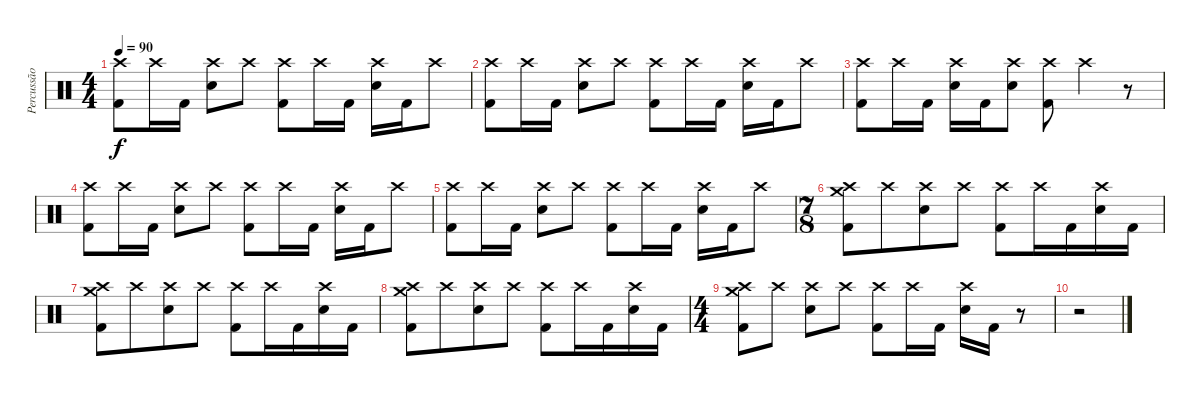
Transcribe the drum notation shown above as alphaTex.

\track ("Percussão" "Percussão") {instrument percussion}
\staff {score}
\articulation defaults
\ts (4 4)
\tempo 90
\clef neutral
\ks c
("Crash high (hit)" "Kick (hit) 2").8{dy f} "Crash high (hit)".16 "Kick (hit) 2".16 ("Crash high (hit)" "Electric Snare (hit)").8 "Crash high (hit)".8 ("Crash high (hit)" "Kick (hit) 2").8 "Crash high (hit)".16 "Kick (hit) 2".16 ("Crash high (hit)" "Electric Snare (hit)").16 "Kick (hit) 2".16 "Crash high (hit)".8 |
("Crash high (hit)" "Kick (hit) 2").8 "Crash high (hit)".16 "Kick (hit) 2".16 ("Crash high (hit)" "Electric Snare (hit)").8 "Crash high (hit)".8 ("Crash high (hit)" "Kick (hit) 2").8 "Crash high (hit)".16 "Kick (hit) 2".16 ("Crash high (hit)" "Electric Snare (hit)").16 "Kick (hit) 2".16 "Crash high (hit)".8 |
("Crash high (hit)" "Kick (hit) 2").8 "Crash high (hit)".16 "Kick (hit) 2".16 ("Crash high (hit)" "Electric Snare (hit)").16 "Kick (hit) 2".16 ("Crash high (hit)" "Electric Snare (hit)").8 ("Crash high (hit)" "Kick (hit) 2").8 "Crash high (hit)".4 r.8 |
("Crash high (hit)" "Kick (hit) 2").8 "Crash high (hit)".16 "Kick (hit) 2".16 ("Crash high (hit)" "Electric Snare (hit)").8 "Crash high (hit)".8 ("Crash high (hit)" "Kick (hit) 2").8 "Crash high (hit)".16 "Kick (hit) 2".16 ("Crash high (hit)" "Electric Snare (hit)").16 "Kick (hit) 2".16 "Crash high (hit)".8 |
("Crash high (hit)" "Kick (hit) 2").8 "Crash high (hit)".16 "Kick (hit) 2".16 ("Crash high (hit)" "Electric Snare (hit)").8 "Crash high (hit)".8 ("Crash high (hit)" "Kick (hit) 2").8 "Crash high (hit)".16 "Kick (hit) 2".16 ("Crash high (hit)" "Electric Snare (hit)").16 "Kick (hit) 2".16 "Crash high (hit)".8 |
\ts (7 8)
("Crash medium (hit)" "Crash high (hit)" "Kick (hit) 2").8 "Crash high (hit)".8 ("Crash high (hit)" "Electric Snare (hit)").8 "Crash high (hit)".8 ("Crash high (hit)" "Kick (hit) 2").8 "Crash high (hit)".16 "Kick (hit) 2".16 ("Crash high (hit)" "Electric Snare (hit)").16 "Kick (hit) 2".16 |
("Crash medium (hit)" "Crash high (hit)" "Kick (hit) 2").8 "Crash high (hit)".8 ("Crash high (hit)" "Electric Snare (hit)").8 "Crash high (hit)".8 ("Crash high (hit)" "Kick (hit) 2").8 "Crash high (hit)".16 "Kick (hit) 2".16 ("Crash high (hit)" "Electric Snare (hit)").16 "Kick (hit) 2".16 |
("Crash medium (hit)" "Crash high (hit)" "Kick (hit) 2").8 "Crash high (hit)".8 ("Crash high (hit)" "Electric Snare (hit)").8 "Crash high (hit)".8 ("Crash high (hit)" "Kick (hit) 2").8 "Crash high (hit)".16 "Kick (hit) 2".16 ("Crash high (hit)" "Electric Snare (hit)").16 "Kick (hit) 2".16 |
\ts (4 4)
("Crash medium (hit)" "Crash high (hit)" "Kick (hit) 2").8 "Crash high (hit)".8 ("Crash high (hit)" "Electric Snare (hit)").8 "Crash high (hit)".8 ("Crash high (hit)" "Kick (hit) 2").8 "Crash high (hit)".16 "Kick (hit) 2".16 ("Crash high (hit)" "Electric Snare (hit)").16 "Kick (hit) 2".16 r.8 |
r.2
